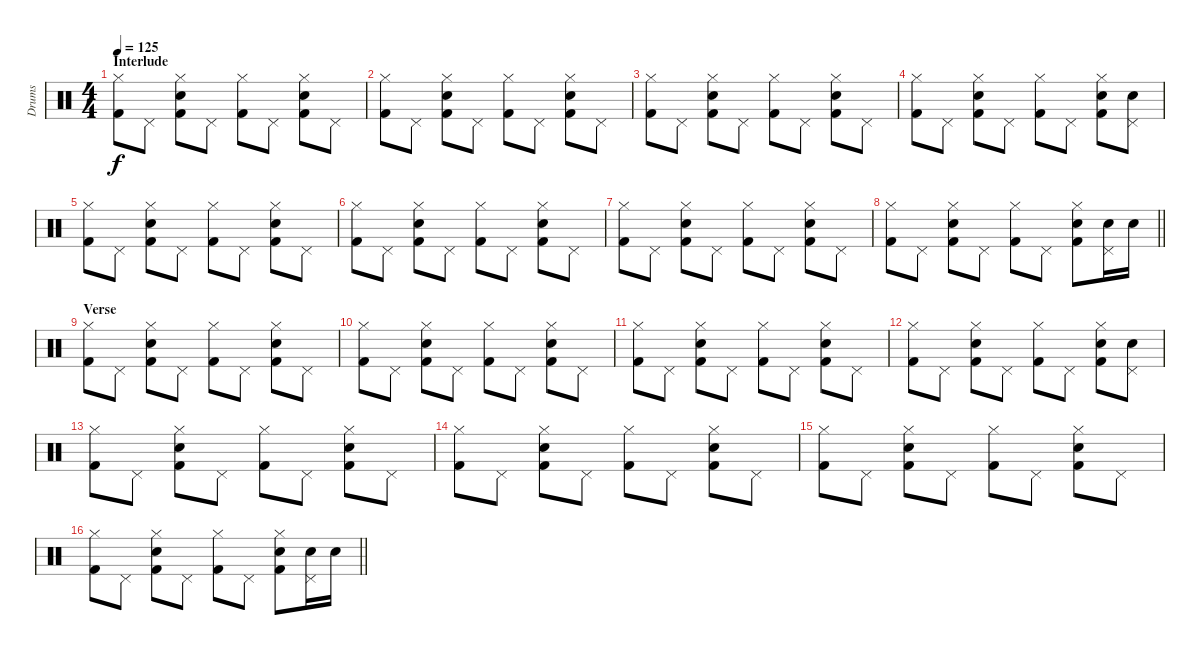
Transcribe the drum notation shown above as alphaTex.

\track ("Drums" "Drums") {instrument percussion}
\staff {score}
\articulation defaults
\ts (4 4)
\section ("" "Interlude")
\tempo 125
\clef neutral
\ks c
("Hi-Hat (closed)" "Kick (hit) 2").8{dy f} "Pedal Hi-Hat (hit)".8 ("Hi-Hat (closed)" "Snare (hit) 2" "Kick (hit) 2").8 "Pedal Hi-Hat (hit)".8 ("Hi-Hat (closed)" "Kick (hit) 2").8 "Pedal Hi-Hat (hit)".8 ("Hi-Hat (closed)" "Snare (hit) 2" "Kick (hit) 2").8 "Pedal Hi-Hat (hit)".8 |
("Hi-Hat (closed)" "Kick (hit) 2").8 "Pedal Hi-Hat (hit)".8 ("Hi-Hat (closed)" "Snare (hit) 2" "Kick (hit) 2").8 "Pedal Hi-Hat (hit)".8 ("Hi-Hat (closed)" "Kick (hit) 2").8 "Pedal Hi-Hat (hit)".8 ("Hi-Hat (closed)" "Snare (hit) 2" "Kick (hit) 2").8 "Pedal Hi-Hat (hit)".8 |
("Hi-Hat (closed)" "Kick (hit) 2").8 "Pedal Hi-Hat (hit)".8 ("Hi-Hat (closed)" "Snare (hit) 2" "Kick (hit) 2").8 "Pedal Hi-Hat (hit)".8 ("Hi-Hat (closed)" "Kick (hit) 2").8 "Pedal Hi-Hat (hit)".8 ("Hi-Hat (closed)" "Snare (hit) 2" "Kick (hit) 2").8 "Pedal Hi-Hat (hit)".8 |
("Hi-Hat (closed)" "Kick (hit) 2").8 "Pedal Hi-Hat (hit)".8 ("Hi-Hat (closed)" "Snare (hit) 2" "Kick (hit) 2").8 "Pedal Hi-Hat (hit)".8 ("Hi-Hat (closed)" "Kick (hit) 2").8 "Pedal Hi-Hat (hit)".8 ("Hi-Hat (closed)" "Snare (hit) 2" "Kick (hit) 2").8 ("Pedal Hi-Hat (hit)" "Snare (hit) 2").8 |
("Hi-Hat (closed)" "Kick (hit) 2").8 "Pedal Hi-Hat (hit)".8 ("Hi-Hat (closed)" "Snare (hit) 2" "Kick (hit) 2").8 "Pedal Hi-Hat (hit)".8 ("Hi-Hat (closed)" "Kick (hit) 2").8 "Pedal Hi-Hat (hit)".8 ("Hi-Hat (closed)" "Snare (hit) 2" "Kick (hit) 2").8 "Pedal Hi-Hat (hit)".8 |
("Hi-Hat (closed)" "Kick (hit) 2").8 "Pedal Hi-Hat (hit)".8 ("Hi-Hat (closed)" "Snare (hit) 2" "Kick (hit) 2").8 "Pedal Hi-Hat (hit)".8 ("Hi-Hat (closed)" "Kick (hit) 2").8 "Pedal Hi-Hat (hit)".8 ("Hi-Hat (closed)" "Snare (hit) 2" "Kick (hit) 2").8 "Pedal Hi-Hat (hit)".8 |
("Hi-Hat (closed)" "Kick (hit) 2").8 "Pedal Hi-Hat (hit)".8 ("Hi-Hat (closed)" "Snare (hit) 2" "Kick (hit) 2").8 "Pedal Hi-Hat (hit)".8 ("Hi-Hat (closed)" "Kick (hit) 2").8 "Pedal Hi-Hat (hit)".8 ("Hi-Hat (closed)" "Snare (hit) 2" "Kick (hit) 2").8 "Pedal Hi-Hat (hit)".8 |
\barLineRight lightlight
("Hi-Hat (closed)" "Kick (hit) 2").8 "Pedal Hi-Hat (hit)".8 ("Hi-Hat (closed)" "Snare (hit) 2" "Kick (hit) 2").8 "Pedal Hi-Hat (hit)".8 ("Hi-Hat (closed)" "Kick (hit) 2").8 "Pedal Hi-Hat (hit)".8 ("Hi-Hat (closed)" "Snare (hit) 2" "Kick (hit) 2").8 ("Pedal Hi-Hat (hit)" "Snare (hit) 2").16 "Snare (hit) 2".16 |
\section ("" "Verse")
("Hi-Hat (closed)" "Kick (hit) 2").8 "Pedal Hi-Hat (hit)".8 ("Hi-Hat (closed)" "Snare (hit) 2" "Kick (hit) 2").8 "Pedal Hi-Hat (hit)".8 ("Hi-Hat (closed)" "Kick (hit) 2").8 "Pedal Hi-Hat (hit)".8 ("Hi-Hat (closed)" "Snare (hit) 2" "Kick (hit) 2").8 "Pedal Hi-Hat (hit)".8 |
("Hi-Hat (closed)" "Kick (hit) 2").8 "Pedal Hi-Hat (hit)".8 ("Hi-Hat (closed)" "Snare (hit) 2" "Kick (hit) 2").8 "Pedal Hi-Hat (hit)".8 ("Hi-Hat (closed)" "Kick (hit) 2").8 "Pedal Hi-Hat (hit)".8 ("Hi-Hat (closed)" "Snare (hit) 2" "Kick (hit) 2").8 "Pedal Hi-Hat (hit)".8 |
("Hi-Hat (closed)" "Kick (hit) 2").8 "Pedal Hi-Hat (hit)".8 ("Hi-Hat (closed)" "Snare (hit) 2" "Kick (hit) 2").8 "Pedal Hi-Hat (hit)".8 ("Hi-Hat (closed)" "Kick (hit) 2").8 "Pedal Hi-Hat (hit)".8 ("Hi-Hat (closed)" "Snare (hit) 2" "Kick (hit) 2").8 "Pedal Hi-Hat (hit)".8 |
("Hi-Hat (closed)" "Kick (hit) 2").8 "Pedal Hi-Hat (hit)".8 ("Hi-Hat (closed)" "Snare (hit) 2" "Kick (hit) 2").8 "Pedal Hi-Hat (hit)".8 ("Hi-Hat (closed)" "Kick (hit) 2").8 "Pedal Hi-Hat (hit)".8 ("Hi-Hat (closed)" "Snare (hit) 2" "Kick (hit) 2").8 ("Pedal Hi-Hat (hit)" "Snare (hit) 2").8 |
("Hi-Hat (closed)" "Kick (hit) 2").8 "Pedal Hi-Hat (hit)".8 ("Hi-Hat (closed)" "Snare (hit) 2" "Kick (hit) 2").8 "Pedal Hi-Hat (hit)".8 ("Hi-Hat (closed)" "Kick (hit) 2").8 "Pedal Hi-Hat (hit)".8 ("Hi-Hat (closed)" "Snare (hit) 2" "Kick (hit) 2").8 "Pedal Hi-Hat (hit)".8 |
("Hi-Hat (closed)" "Kick (hit) 2").8 "Pedal Hi-Hat (hit)".8 ("Hi-Hat (closed)" "Snare (hit) 2" "Kick (hit) 2").8 "Pedal Hi-Hat (hit)".8 ("Hi-Hat (closed)" "Kick (hit) 2").8 "Pedal Hi-Hat (hit)".8 ("Hi-Hat (closed)" "Snare (hit) 2" "Kick (hit) 2").8 "Pedal Hi-Hat (hit)".8 |
("Hi-Hat (closed)" "Kick (hit) 2").8 "Pedal Hi-Hat (hit)".8 ("Hi-Hat (closed)" "Snare (hit) 2" "Kick (hit) 2").8 "Pedal Hi-Hat (hit)".8 ("Hi-Hat (closed)" "Kick (hit) 2").8 "Pedal Hi-Hat (hit)".8 ("Hi-Hat (closed)" "Snare (hit) 2" "Kick (hit) 2").8 "Pedal Hi-Hat (hit)".8 |
\barLineRight lightlight
("Hi-Hat (closed)" "Kick (hit) 2").8 "Pedal Hi-Hat (hit)".8 ("Hi-Hat (closed)" "Snare (hit) 2" "Kick (hit) 2").8 "Pedal Hi-Hat (hit)".8 ("Hi-Hat (closed)" "Kick (hit) 2").8 "Pedal Hi-Hat (hit)".8 ("Hi-Hat (closed)" "Snare (hit) 2" "Kick (hit) 2").8 ("Pedal Hi-Hat (hit)" "Snare (hit) 2").16 "Snare (hit) 2".16
